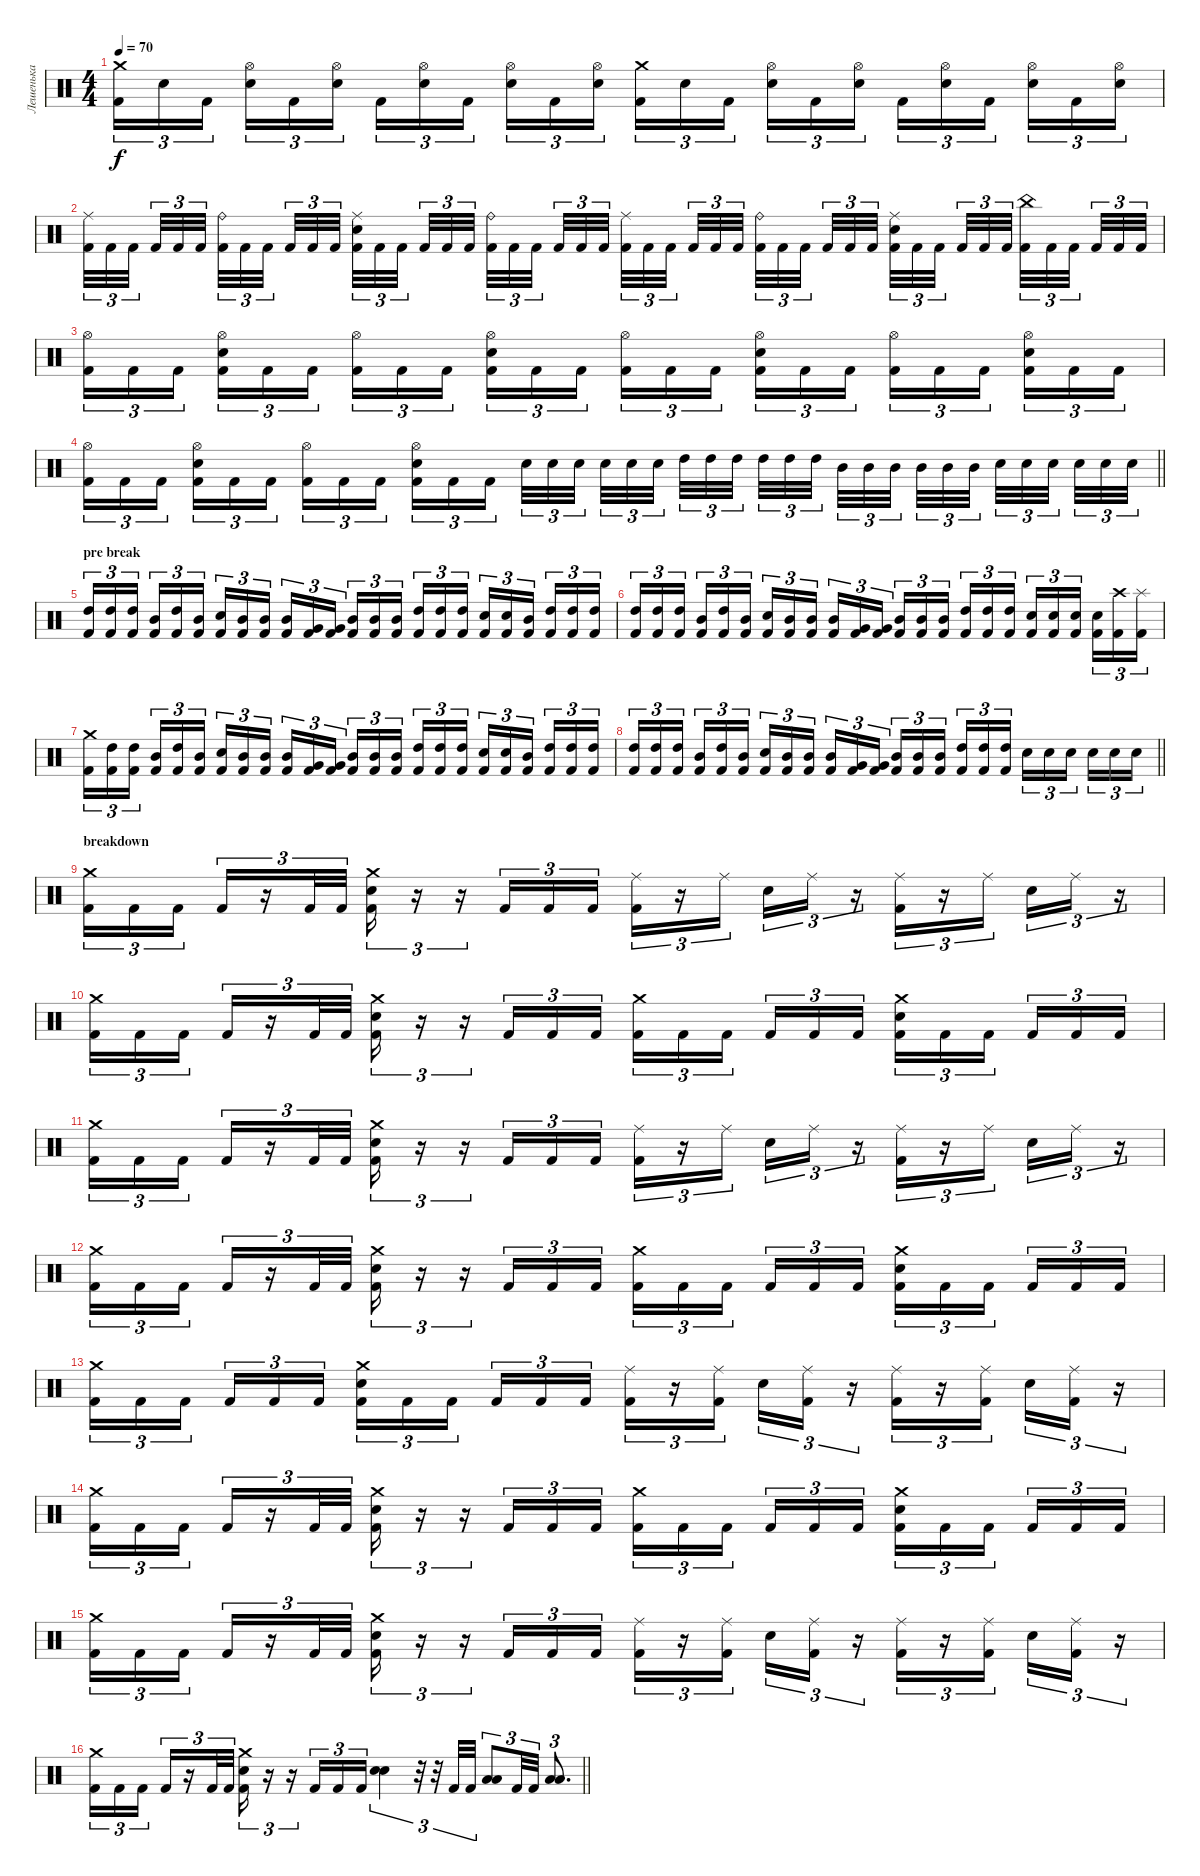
\track ("Лешенька" "Лешенька") {instrument percussion}
\staff {score}
\articulation defaults
\ts (4 4)
\tempo 70
\clef neutral
\ks c
("Crash medium (hit)" "Kick (hit) 2").16{tu (3 2) dy f} "Electric Snare (hit)".16{tu (3 2)} "Kick (hit) 2".16{tu (3 2) beam splitsecondary} ("Hi-Hat (open)" "Electric Snare (hit)").16{tu (3 2)} "Kick (hit) 2".16{tu (3 2)} ("Hi-Hat (open)" "Electric Snare (hit)").16{tu (3 2)} "Kick (hit) 2".16{tu (3 2)} ("Hi-Hat (open)" "Electric Snare (hit)").16{tu (3 2)} "Kick (hit) 2".16{tu (3 2) beam splitsecondary} ("Hi-Hat (open)" "Electric Snare (hit)").16{tu (3 2)} "Kick (hit) 2".16{tu (3 2)} ("Hi-Hat (open)" "Electric Snare (hit)").16{tu (3 2)} ("Crash medium (hit)" "Kick (hit) 2").16{tu (3 2)} "Electric Snare (hit)".16{tu (3 2)} "Kick (hit) 2".16{tu (3 2) beam splitsecondary} ("Hi-Hat (open)" "Electric Snare (hit)").16{tu (3 2)} "Kick (hit) 2".16{tu (3 2)} ("Hi-Hat (open)" "Electric Snare (hit)").16{tu (3 2)} "Kick (hit) 2".16{tu (3 2)} ("Hi-Hat (open)" "Electric Snare (hit)").16{tu (3 2)} "Kick (hit) 2".16{tu (3 2) beam splitsecondary} ("Hi-Hat (open)" "Electric Snare (hit)").16{tu (3 2)} "Kick (hit) 2".16{tu (3 2)} ("Hi-Hat (open)" "Electric Snare (hit)").16{tu (3 2)} |
("Ride (middle)" "Kick (hit) 2").32{tu (3 2)} "Kick (hit) 2".32{tu (3 2)} "Kick (hit) 2".32{tu (3 2) beam splitsecondary} "Kick (hit) 2".32{tu (3 2)} "Kick (hit) 2".32{tu (3 2)} "Kick (hit) 2".32{tu (3 2) beam splitsecondary} ("Ride (bell)" "Kick (hit) 2").32{tu (3 2)} "Kick (hit) 2".32{tu (3 2)} "Kick (hit) 2".32{tu (3 2) beam splitsecondary} "Kick (hit) 2".32{tu (3 2)} "Kick (hit) 2".32{tu (3 2)} "Kick (hit) 2".32{tu (3 2)} ("Ride (middle)" "Electric Snare (hit)" "Kick (hit) 2").32{tu (3 2)} "Kick (hit) 2".32{tu (3 2)} "Kick (hit) 2".32{tu (3 2) beam splitsecondary} "Kick (hit) 2".32{tu (3 2)} "Kick (hit) 2".32{tu (3 2)} "Kick (hit) 2".32{tu (3 2) beam splitsecondary} ("Ride (bell)" "Kick (hit) 2").32{tu (3 2)} "Kick (hit) 2".32{tu (3 2)} "Kick (hit) 2".32{tu (3 2) beam splitsecondary} "Kick (hit) 2".32{tu (3 2)} "Kick (hit) 2".32{tu (3 2)} "Kick (hit) 2".32{tu (3 2)} ("Ride (middle)" "Kick (hit) 2").32{tu (3 2)} "Kick (hit) 2".32{tu (3 2)} "Kick (hit) 2".32{tu (3 2) beam splitsecondary} "Kick (hit) 2".32{tu (3 2)} "Kick (hit) 2".32{tu (3 2)} "Kick (hit) 2".32{tu (3 2) beam splitsecondary} ("Ride (bell)" "Kick (hit) 2").32{tu (3 2)} "Kick (hit) 2".32{tu (3 2)} "Kick (hit) 2".32{tu (3 2) beam splitsecondary} "Kick (hit) 2".32{tu (3 2)} "Kick (hit) 2".32{tu (3 2)} "Kick (hit) 2".32{tu (3 2)} ("Ride (middle)" "Electric Snare (hit)" "Kick (hit) 2").32{tu (3 2)} "Kick (hit) 2".32{tu (3 2)} "Kick (hit) 2".32{tu (3 2) beam splitsecondary} "Kick (hit) 2".32{tu (3 2)} "Kick (hit) 2".32{tu (3 2)} "Kick (hit) 2".32{tu (3 2) beam splitsecondary} ("China (hit)" "Kick (hit) 2").32{tu (3 2)} "Kick (hit) 2".32{tu (3 2)} "Kick (hit) 2".32{tu (3 2) beam splitsecondary} "Kick (hit) 2".32{tu (3 2)} "Kick (hit) 2".32{tu (3 2)} "Kick (hit) 2".32{tu (3 2)} |
("Hi-Hat (open)" "Kick (hit) 2").16{tu (3 2)} "Kick (hit) 2".16{tu (3 2)} "Kick (hit) 2".16{tu (3 2) beam splitsecondary} ("Hi-Hat (open)" "Electric Snare (hit)" "Kick (hit) 2").16{tu (3 2)} "Kick (hit) 2".16{tu (3 2)} "Kick (hit) 2".16{tu (3 2)} ("Hi-Hat (open)" "Kick (hit) 2").16{tu (3 2)} "Kick (hit) 2".16{tu (3 2)} "Kick (hit) 2".16{tu (3 2) beam splitsecondary} ("Hi-Hat (open)" "Electric Snare (hit)" "Kick (hit) 2").16{tu (3 2)} "Kick (hit) 2".16{tu (3 2)} "Kick (hit) 2".16{tu (3 2)} ("Hi-Hat (open)" "Kick (hit) 2").16{tu (3 2)} "Kick (hit) 2".16{tu (3 2)} "Kick (hit) 2".16{tu (3 2) beam splitsecondary} ("Hi-Hat (open)" "Electric Snare (hit)" "Kick (hit) 2").16{tu (3 2)} "Kick (hit) 2".16{tu (3 2)} "Kick (hit) 2".16{tu (3 2)} ("Hi-Hat (open)" "Kick (hit) 2").16{tu (3 2)} "Kick (hit) 2".16{tu (3 2)} "Kick (hit) 2".16{tu (3 2) beam splitsecondary} ("Hi-Hat (open)" "Electric Snare (hit)" "Kick (hit) 2").16{tu (3 2)} "Kick (hit) 2".16{tu (3 2)} "Kick (hit) 2".16{tu (3 2)} |
\barLineRight lightlight
("Hi-Hat (open)" "Kick (hit) 2").16{tu (3 2)} "Kick (hit) 2".16{tu (3 2)} "Kick (hit) 2".16{tu (3 2) beam splitsecondary} ("Hi-Hat (open)" "Electric Snare (hit)" "Kick (hit) 2").16{tu (3 2)} "Kick (hit) 2".16{tu (3 2)} "Kick (hit) 2".16{tu (3 2)} ("Hi-Hat (open)" "Kick (hit) 2").16{tu (3 2)} "Kick (hit) 2".16{tu (3 2)} "Kick (hit) 2".16{tu (3 2) beam splitsecondary} ("Hi-Hat (open)" "Electric Snare (hit)" "Kick (hit) 2").16{tu (3 2)} "Kick (hit) 2".16{tu (3 2)} "Kick (hit) 2".16{tu (3 2)} "Electric Snare (hit)".32{tu (3 2)} "Electric Snare (hit)".32{tu (3 2)} "Electric Snare (hit)".32{tu (3 2) beam splitsecondary} "Electric Snare (hit)".32{tu (3 2)} "Electric Snare (hit)".32{tu (3 2)} "Electric Snare (hit)".32{tu (3 2) beam splitsecondary} "High Tom (hit)".32{tu (3 2)} "High Tom (hit)".32{tu (3 2)} "High Tom (hit)".32{tu (3 2) beam splitsecondary} "High Tom (hit)".32{tu (3 2)} "High Tom (hit)".32{tu (3 2)} "High Tom (hit)".32{tu (3 2)} "Mid Tom (hit)".32{tu (3 2)} "Mid Tom (hit)".32{tu (3 2)} "Mid Tom (hit)".32{tu (3 2) beam splitsecondary} "Mid Tom (hit)".32{tu (3 2)} "Mid Tom (hit)".32{tu (3 2)} "Mid Tom (hit)".32{tu (3 2) beam splitsecondary} "Electric Snare (hit)".32{tu (3 2)} "Electric Snare (hit)".32{tu (3 2)} "Electric Snare (hit)".32{tu (3 2) beam splitsecondary} "Electric Snare (hit)".32{tu (3 2)} "Electric Snare (hit)".32{tu (3 2)} "Electric Snare (hit)".32{tu (3 2)} |
\section ("" "pre break")
("High Tom (hit)" "Kick (hit) 2").16{tu (3 2)} ("High Tom (hit)" "Kick (hit) 2").16{tu (3 2)} ("High Tom (hit)" "Kick (hit) 2").16{tu (3 2) beam splitsecondary} ("Mid Tom (hit)" "Kick (hit) 2").16{tu (3 2)} ("High Tom (hit)" "Kick (hit) 2").16{tu (3 2)} ("Mid Tom (hit)" "Kick (hit) 2").16{tu (3 2)} ("Electric Snare (hit)" "Kick (hit) 2").16{tu (3 2)} ("Mid Tom (hit)" "Kick (hit) 2").16{tu (3 2)} ("Mid Tom (hit)" "Kick (hit) 2").16{tu (3 2) beam splitsecondary} ("Mid Tom (hit)" "Kick (hit) 2").16{tu (3 2)} ("Very Low Tom (hit)" "Kick (hit) 2").16{tu (3 2)} ("Very Low Tom (hit)" "Kick (hit) 2").16{tu (3 2)} ("Mid Tom (hit)" "Kick (hit) 2").16{tu (3 2)} ("Mid Tom (hit)" "Kick (hit) 2").16{tu (3 2)} ("Mid Tom (hit)" "Kick (hit) 2").16{tu (3 2) beam splitsecondary} ("High Tom (hit)" "Kick (hit) 2").16{tu (3 2)} ("High Tom (hit)" "Kick (hit) 2").16{tu (3 2)} ("High Tom (hit)" "Kick (hit) 2").16{tu (3 2)} ("Electric Snare (hit)" "Kick (hit) 2").16{tu (3 2)} ("Electric Snare (hit)" "Kick (hit) 2").16{tu (3 2)} ("Mid Tom (hit)" "Kick (hit) 2").16{tu (3 2) beam splitsecondary} ("High Tom (hit)" "Kick (hit) 2").16{tu (3 2)} ("High Tom (hit)" "Kick (hit) 2").16{tu (3 2)} ("High Tom (hit)" "Kick (hit) 2").16{tu (3 2)} |
("High Tom (hit)" "Kick (hit) 2").16{tu (3 2)} ("High Tom (hit)" "Kick (hit) 2").16{tu (3 2)} ("High Tom (hit)" "Kick (hit) 2").16{tu (3 2) beam splitsecondary} ("Mid Tom (hit)" "Kick (hit) 2").16{tu (3 2)} ("High Tom (hit)" "Kick (hit) 2").16{tu (3 2)} ("Mid Tom (hit)" "Kick (hit) 2").16{tu (3 2)} ("Electric Snare (hit)" "Kick (hit) 2").16{tu (3 2)} ("Mid Tom (hit)" "Kick (hit) 2").16{tu (3 2)} ("Mid Tom (hit)" "Kick (hit) 2").16{tu (3 2) beam splitsecondary} ("Mid Tom (hit)" "Kick (hit) 2").16{tu (3 2)} ("Very Low Tom (hit)" "Kick (hit) 2").16{tu (3 2)} ("Very Low Tom (hit)" "Kick (hit) 2").16{tu (3 2)} ("Mid Tom (hit)" "Kick (hit) 2").16{tu (3 2)} ("Mid Tom (hit)" "Kick (hit) 2").16{tu (3 2)} ("Mid Tom (hit)" "Kick (hit) 2").16{tu (3 2) beam splitsecondary} ("High Tom (hit)" "Kick (hit) 2").16{tu (3 2)} ("High Tom (hit)" "Kick (hit) 2").16{tu (3 2)} ("High Tom (hit)" "Kick (hit) 2").16{tu (3 2)} ("Electric Snare (hit)" "Kick (hit) 2").16{tu (3 2)} ("Electric Snare (hit)" "Kick (hit) 2").16{tu (3 2)} ("Electric Snare (hit)" "Kick (hit) 2").16{tu (3 2) beam splitsecondary} ("Electric Snare (hit)" "Kick (hit) 2").16{tu (3 2)} ("Crash high (hit)" "Kick (hit) 2").16{tu (3 2)} ("Splash (hit)" "Kick (hit) 2").16{tu (3 2)} |
("Crash medium (hit)" "Kick (hit) 2").16{tu (3 2)} ("High Tom (hit)" "Kick (hit) 2").16{tu (3 2)} ("High Tom (hit)" "Kick (hit) 2").16{tu (3 2) beam splitsecondary} ("Mid Tom (hit)" "Kick (hit) 2").16{tu (3 2)} ("High Tom (hit)" "Kick (hit) 2").16{tu (3 2)} ("Mid Tom (hit)" "Kick (hit) 2").16{tu (3 2)} ("Electric Snare (hit)" "Kick (hit) 2").16{tu (3 2)} ("Mid Tom (hit)" "Kick (hit) 2").16{tu (3 2)} ("Mid Tom (hit)" "Kick (hit) 2").16{tu (3 2) beam splitsecondary} ("Mid Tom (hit)" "Kick (hit) 2").16{tu (3 2)} ("Very Low Tom (hit)" "Kick (hit) 2").16{tu (3 2)} ("Very Low Tom (hit)" "Kick (hit) 2").16{tu (3 2)} ("Mid Tom (hit)" "Kick (hit) 2").16{tu (3 2)} ("Mid Tom (hit)" "Kick (hit) 2").16{tu (3 2)} ("Mid Tom (hit)" "Kick (hit) 2").16{tu (3 2) beam splitsecondary} ("High Tom (hit)" "Kick (hit) 2").16{tu (3 2)} ("High Tom (hit)" "Kick (hit) 2").16{tu (3 2)} ("High Tom (hit)" "Kick (hit) 2").16{tu (3 2)} ("Electric Snare (hit)" "Kick (hit) 2").16{tu (3 2)} ("Electric Snare (hit)" "Kick (hit) 2").16{tu (3 2)} ("Mid Tom (hit)" "Kick (hit) 2").16{tu (3 2) beam splitsecondary} ("High Tom (hit)" "Kick (hit) 2").16{tu (3 2)} ("High Tom (hit)" "Kick (hit) 2").16{tu (3 2)} ("High Tom (hit)" "Kick (hit) 2").16{tu (3 2)} |
\barLineRight lightlight
("High Tom (hit)" "Kick (hit) 2").16{tu (3 2)} ("High Tom (hit)" "Kick (hit) 2").16{tu (3 2)} ("High Tom (hit)" "Kick (hit) 2").16{tu (3 2) beam splitsecondary} ("Mid Tom (hit)" "Kick (hit) 2").16{tu (3 2)} ("High Tom (hit)" "Kick (hit) 2").16{tu (3 2)} ("Mid Tom (hit)" "Kick (hit) 2").16{tu (3 2)} ("Electric Snare (hit)" "Kick (hit) 2").16{tu (3 2)} ("Mid Tom (hit)" "Kick (hit) 2").16{tu (3 2)} ("Mid Tom (hit)" "Kick (hit) 2").16{tu (3 2) beam splitsecondary} ("Mid Tom (hit)" "Kick (hit) 2").16{tu (3 2)} ("Very Low Tom (hit)" "Kick (hit) 2").16{tu (3 2)} ("Very Low Tom (hit)" "Kick (hit) 2").16{tu (3 2)} ("Mid Tom (hit)" "Kick (hit) 2").16{tu (3 2)} ("Mid Tom (hit)" "Kick (hit) 2").16{tu (3 2)} ("Mid Tom (hit)" "Kick (hit) 2").16{tu (3 2) beam splitsecondary} ("High Tom (hit)" "Kick (hit) 2").16{tu (3 2)} ("High Tom (hit)" "Kick (hit) 2").16{tu (3 2)} ("High Tom (hit)" "Kick (hit) 2").16{tu (3 2)} "Electric Snare (hit)".16{tu (3 2)} "Electric Snare (hit)".16{tu (3 2)} "Electric Snare (hit)".16{tu (3 2) beam splitsecondary} "Electric Snare (hit)".16{tu (3 2)} "Electric Snare (hit)".16{tu (3 2)} "Electric Snare (hit)".16{tu (3 2)} |
\section ("" "breakdown")
("Crash medium (hit)" "Kick (hit) 2").16{tu (3 2)} "Kick (hit) 2".16{tu (3 2)} "Kick (hit) 2".16{tu (3 2) beam splitsecondary} "Kick (hit) 2".16{tu (3 2)} r.16{tu (3 2)} "Kick (hit) 2".32{tu (3 2)} "Kick (hit) 2".32{tu (3 2)} ("Crash medium (hit)" "Electric Snare (hit)" "Kick (hit) 2").16{tu (3 2)} r.16{tu (3 2)} r.16{tu (3 2)} "Kick (hit) 2".16{tu (3 2)} "Kick (hit) 2".16{tu (3 2)} "Kick (hit) 2".16{tu (3 2)} ("Ride (middle)" "Kick (hit) 2").16{tu (3 2)} r.16{tu (3 2)} "Ride (middle)".16{tu (3 2) beam splitsecondary} "Electric Snare (hit)".16{tu (3 2)} "Ride (middle)".16{tu (3 2)} r.16{tu (3 2)} ("Ride (middle)" "Kick (hit) 2").16{tu (3 2)} r.16{tu (3 2)} "Ride (middle)".16{tu (3 2) beam splitsecondary} "Electric Snare (hit)".16{tu (3 2)} "Ride (middle)".16{tu (3 2)} r.16{tu (3 2)} |
("Crash medium (hit)" "Kick (hit) 2").16{tu (3 2)} "Kick (hit) 2".16{tu (3 2)} "Kick (hit) 2".16{tu (3 2) beam splitsecondary} "Kick (hit) 2".16{tu (3 2)} r.16{tu (3 2)} "Kick (hit) 2".32{tu (3 2)} "Kick (hit) 2".32{tu (3 2)} ("Crash medium (hit)" "Electric Snare (hit)" "Kick (hit) 2").16{tu (3 2)} r.16{tu (3 2)} r.16{tu (3 2)} "Kick (hit) 2".16{tu (3 2)} "Kick (hit) 2".16{tu (3 2)} "Kick (hit) 2".16{tu (3 2)} ("Crash medium (hit)" "Kick (hit) 2").16{tu (3 2)} "Kick (hit) 2".16{tu (3 2)} "Kick (hit) 2".16{tu (3 2) beam splitsecondary} "Kick (hit) 2".16{tu (3 2)} "Kick (hit) 2".16{tu (3 2)} "Kick (hit) 2".16{tu (3 2)} ("Crash medium (hit)" "Electric Snare (hit)" "Kick (hit) 2").16{tu (3 2)} "Kick (hit) 2".16{tu (3 2)} "Kick (hit) 2".16{tu (3 2) beam splitsecondary} "Kick (hit) 2".16{tu (3 2)} "Kick (hit) 2".16{tu (3 2)} "Kick (hit) 2".16{tu (3 2)} |
("Crash medium (hit)" "Kick (hit) 2").16{tu (3 2)} "Kick (hit) 2".16{tu (3 2)} "Kick (hit) 2".16{tu (3 2) beam splitsecondary} "Kick (hit) 2".16{tu (3 2)} r.16{tu (3 2)} "Kick (hit) 2".32{tu (3 2)} "Kick (hit) 2".32{tu (3 2)} ("Crash medium (hit)" "Electric Snare (hit)" "Kick (hit) 2").16{tu (3 2)} r.16{tu (3 2)} r.16{tu (3 2)} "Kick (hit) 2".16{tu (3 2)} "Kick (hit) 2".16{tu (3 2)} "Kick (hit) 2".16{tu (3 2)} ("Ride (middle)" "Kick (hit) 2").16{tu (3 2)} r.16{tu (3 2)} "Ride (middle)".16{tu (3 2) beam splitsecondary} "Electric Snare (hit)".16{tu (3 2)} "Ride (middle)".16{tu (3 2)} r.16{tu (3 2)} ("Ride (middle)" "Kick (hit) 2").16{tu (3 2)} r.16{tu (3 2)} "Ride (middle)".16{tu (3 2) beam splitsecondary} "Electric Snare (hit)".16{tu (3 2)} "Ride (middle)".16{tu (3 2)} r.16{tu (3 2)} |
("Crash medium (hit)" "Kick (hit) 2").16{tu (3 2)} "Kick (hit) 2".16{tu (3 2)} "Kick (hit) 2".16{tu (3 2) beam splitsecondary} "Kick (hit) 2".16{tu (3 2)} r.16{tu (3 2)} "Kick (hit) 2".32{tu (3 2)} "Kick (hit) 2".32{tu (3 2)} ("Crash medium (hit)" "Electric Snare (hit)" "Kick (hit) 2").16{tu (3 2)} r.16{tu (3 2)} r.16{tu (3 2)} "Kick (hit) 2".16{tu (3 2)} "Kick (hit) 2".16{tu (3 2)} "Kick (hit) 2".16{tu (3 2)} ("Crash medium (hit)" "Kick (hit) 2").16{tu (3 2)} "Kick (hit) 2".16{tu (3 2)} "Kick (hit) 2".16{tu (3 2) beam splitsecondary} "Kick (hit) 2".16{tu (3 2)} "Kick (hit) 2".16{tu (3 2)} "Kick (hit) 2".16{tu (3 2)} ("Crash medium (hit)" "Electric Snare (hit)" "Kick (hit) 2").16{tu (3 2)} "Kick (hit) 2".16{tu (3 2)} "Kick (hit) 2".16{tu (3 2) beam splitsecondary} "Kick (hit) 2".16{tu (3 2)} "Kick (hit) 2".16{tu (3 2)} "Kick (hit) 2".16{tu (3 2)} |
("Crash medium (hit)" "Kick (hit) 2").16{tu (3 2)} "Kick (hit) 2".16{tu (3 2)} "Kick (hit) 2".16{tu (3 2) beam splitsecondary} "Kick (hit) 2".16{tu (3 2)} "Kick (hit) 2".16{tu (3 2)} "Kick (hit) 2".16{tu (3 2)} ("Crash medium (hit)" "Electric Snare (hit)" "Kick (hit) 2").16{tu (3 2)} "Kick (hit) 2".16{tu (3 2)} "Kick (hit) 2".16{tu (3 2) beam splitsecondary} "Kick (hit) 2".16{tu (3 2)} "Kick (hit) 2".16{tu (3 2)} "Kick (hit) 2".16{tu (3 2)} ("Ride (middle)" "Kick (hit) 2").16{tu (3 2)} r.16{tu (3 2)} ("Ride (middle)" "Kick (hit) 2").16{tu (3 2) beam splitsecondary} "Electric Snare (hit)".16{tu (3 2)} ("Ride (middle)" "Kick (hit) 2").16{tu (3 2)} r.16{tu (3 2)} ("Ride (middle)" "Kick (hit) 2").16{tu (3 2)} r.16{tu (3 2)} ("Ride (middle)" "Kick (hit) 2").16{tu (3 2) beam splitsecondary} "Electric Snare (hit)".16{tu (3 2)} ("Ride (middle)" "Kick (hit) 2").16{tu (3 2)} r.16{tu (3 2)} |
("Crash medium (hit)" "Kick (hit) 2").16{tu (3 2)} "Kick (hit) 2".16{tu (3 2)} "Kick (hit) 2".16{tu (3 2) beam splitsecondary} "Kick (hit) 2".16{tu (3 2)} r.16{tu (3 2)} "Kick (hit) 2".32{tu (3 2)} "Kick (hit) 2".32{tu (3 2)} ("Crash medium (hit)" "Electric Snare (hit)" "Kick (hit) 2").16{tu (3 2)} r.16{tu (3 2)} r.16{tu (3 2)} "Kick (hit) 2".16{tu (3 2)} "Kick (hit) 2".16{tu (3 2)} "Kick (hit) 2".16{tu (3 2)} ("Crash medium (hit)" "Kick (hit) 2").16{tu (3 2)} "Kick (hit) 2".16{tu (3 2)} "Kick (hit) 2".16{tu (3 2) beam splitsecondary} "Kick (hit) 2".16{tu (3 2)} "Kick (hit) 2".16{tu (3 2)} "Kick (hit) 2".16{tu (3 2)} ("Crash medium (hit)" "Electric Snare (hit)" "Kick (hit) 2").16{tu (3 2)} "Kick (hit) 2".16{tu (3 2)} "Kick (hit) 2".16{tu (3 2) beam splitsecondary} "Kick (hit) 2".16{tu (3 2)} "Kick (hit) 2".16{tu (3 2)} "Kick (hit) 2".16{tu (3 2)} |
("Crash medium (hit)" "Kick (hit) 2").16{tu (3 2)} "Kick (hit) 2".16{tu (3 2)} "Kick (hit) 2".16{tu (3 2) beam splitsecondary} "Kick (hit) 2".16{tu (3 2)} r.16{tu (3 2)} "Kick (hit) 2".32{tu (3 2)} "Kick (hit) 2".32{tu (3 2)} ("Crash medium (hit)" "Electric Snare (hit)" "Kick (hit) 2").16{tu (3 2)} r.16{tu (3 2)} r.16{tu (3 2)} "Kick (hit) 2".16{tu (3 2)} "Kick (hit) 2".16{tu (3 2)} "Kick (hit) 2".16{tu (3 2)} ("Ride (middle)" "Kick (hit) 2").16{tu (3 2)} r.16{tu (3 2)} ("Ride (middle)" "Kick (hit) 2").16{tu (3 2) beam splitsecondary} "Electric Snare (hit)".16{tu (3 2)} ("Ride (middle)" "Kick (hit) 2").16{tu (3 2)} r.16{tu (3 2)} ("Ride (middle)" "Kick (hit) 2").16{tu (3 2)} r.16{tu (3 2)} ("Ride (middle)" "Kick (hit) 2").16{tu (3 2) beam splitsecondary} "Electric Snare (hit)".16{tu (3 2)} ("Ride (middle)" "Kick (hit) 2").16{tu (3 2)} r.16{tu (3 2)} |
\barLineRight lightlight
("Crash medium (hit)" "Kick (hit) 2").16{tu (3 2)} "Kick (hit) 2".16{tu (3 2)} "Kick (hit) 2".16{tu (3 2) beam splitsecondary} "Kick (hit) 2".16{tu (3 2)} r.16{tu (3 2)} "Kick (hit) 2".32{tu (3 2)} "Kick (hit) 2".32{tu (3 2)} ("Crash medium (hit)" "Electric Snare (hit)" "Kick (hit) 2").16{tu (3 2)} r.16{tu (3 2)} r.16{tu (3 2)} "Kick (hit) 2".16{tu (3 2)} "Kick (hit) 2".16{tu (3 2)} "Kick (hit) 2".16{tu (3 2)} ("Electric Snare (hit)" "Electric Snare (hit)").4{tu (3 2)} r.32{tu (3 2)} r.32{tu (3 2)} "Kick (hit) 2".32{tu (3 2)} "Kick (hit) 2".32{tu (3 2)} ("Low Tom (hit)" "Low Tom (hit)").8{tu (3 2)} "Kick (hit) 2".32{tu (3 2)} "Kick (hit) 2".32{tu (3 2)} ("Low Tom (hit)" "Low Tom (hit)").8{d tu (3 2)}
